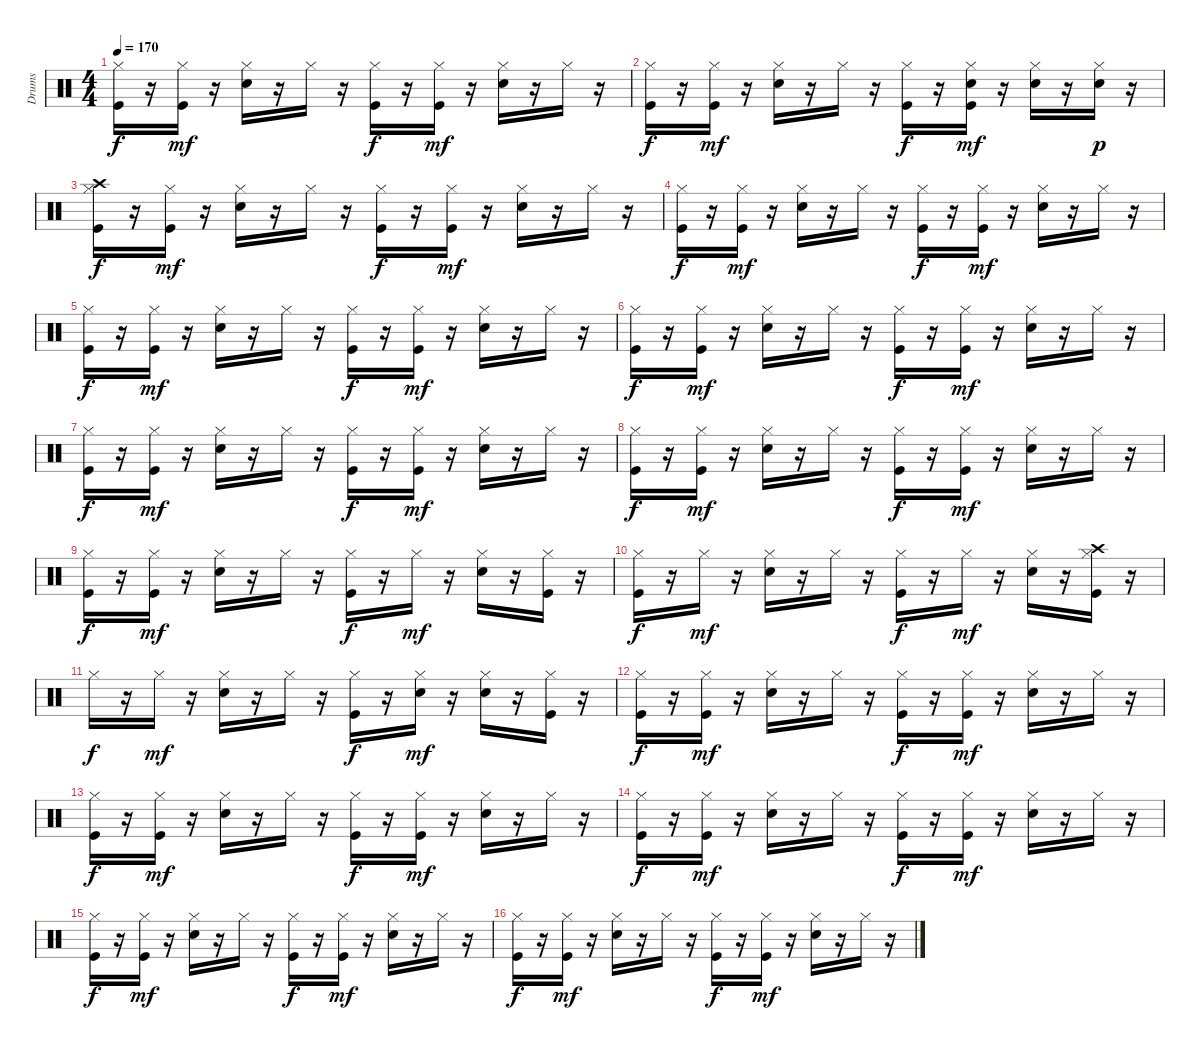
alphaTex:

\track ("Drums" "Drums") {instrument percussion}
\staff {score}
\articulation defaults
\ts (4 4)
\tempo 170
\clef neutral
\ks c
("Hi-Hat (closed)" "Kick (hit)").16{dy f} r.16 ("Hi-Hat (closed)" "Kick (hit)").16{dy mf} r.16 ("Hi-Hat (closed)" "Electric Snare (hit)").16 r.16 "Hi-Hat (closed)".16 r.16 ("Hi-Hat (closed)" "Kick (hit)").16{dy f} r.16 ("Hi-Hat (closed)" "Kick (hit)").16{dy mf} r.16 ("Hi-Hat (closed)" "Electric Snare (hit)").16 r.16 "Hi-Hat (closed)".16 r.16 |
("Hi-Hat (closed)" "Kick (hit)").16{dy f} r.16 ("Hi-Hat (closed)" "Kick (hit)").16{dy mf} r.16 ("Hi-Hat (closed)" "Electric Snare (hit)").16 r.16 "Hi-Hat (closed)".16 r.16 ("Hi-Hat (closed)" "Kick (hit)").16{dy f} r.16 ("Hi-Hat (closed)" "Kick (hit)" "Electric Snare (hit)").16{dy mf} r.16 ("Hi-Hat (closed)" "Electric Snare (hit)").16 r.16 ("Hi-Hat (closed)" "Electric Snare (hit)").16{dy p} r.16 |
("Hi-Hat (closed)" "Crash high (hit)" "Kick (hit)").16{dy f} r.16 ("Hi-Hat (closed)" "Kick (hit)").16{dy mf} r.16 ("Hi-Hat (closed)" "Electric Snare (hit)").16 r.16 "Hi-Hat (closed)".16 r.16 ("Hi-Hat (closed)" "Kick (hit)").16{dy f} r.16 ("Hi-Hat (closed)" "Kick (hit)").16{dy mf} r.16 ("Hi-Hat (closed)" "Electric Snare (hit)").16 r.16 "Hi-Hat (closed)".16 r.16 |
("Hi-Hat (closed)" "Kick (hit)").16{dy f} r.16 ("Hi-Hat (closed)" "Kick (hit)").16{dy mf} r.16 ("Hi-Hat (closed)" "Electric Snare (hit)").16 r.16 "Hi-Hat (closed)".16 r.16 ("Hi-Hat (closed)" "Kick (hit)").16{dy f} r.16 ("Hi-Hat (closed)" "Kick (hit)").16{dy mf} r.16 ("Hi-Hat (closed)" "Electric Snare (hit)").16 r.16 "Hi-Hat (closed)".16 r.16 |
("Hi-Hat (closed)" "Kick (hit)").16{dy f} r.16 ("Hi-Hat (closed)" "Kick (hit)").16{dy mf} r.16 ("Hi-Hat (closed)" "Electric Snare (hit)").16 r.16 "Hi-Hat (closed)".16 r.16 ("Hi-Hat (closed)" "Kick (hit)").16{dy f} r.16 ("Hi-Hat (closed)" "Kick (hit)").16{dy mf} r.16 ("Hi-Hat (closed)" "Electric Snare (hit)").16 r.16 "Hi-Hat (closed)".16 r.16 |
("Hi-Hat (closed)" "Kick (hit)").16{dy f} r.16 ("Hi-Hat (closed)" "Kick (hit)").16{dy mf} r.16 ("Hi-Hat (closed)" "Electric Snare (hit)").16 r.16 "Hi-Hat (closed)".16 r.16 ("Hi-Hat (closed)" "Kick (hit)").16{dy f} r.16 ("Hi-Hat (closed)" "Kick (hit)").16{dy mf} r.16 ("Hi-Hat (closed)" "Electric Snare (hit)").16 r.16 "Hi-Hat (closed)".16 r.16 |
("Hi-Hat (closed)" "Kick (hit)").16{dy f} r.16 ("Hi-Hat (closed)" "Kick (hit)").16{dy mf} r.16 ("Hi-Hat (closed)" "Electric Snare (hit)").16 r.16 "Hi-Hat (closed)".16 r.16 ("Hi-Hat (closed)" "Kick (hit)").16{dy f} r.16 ("Hi-Hat (closed)" "Kick (hit)").16{dy mf} r.16 ("Hi-Hat (closed)" "Electric Snare (hit)").16 r.16 "Hi-Hat (closed)".16 r.16 |
("Hi-Hat (closed)" "Kick (hit)").16{dy f} r.16 ("Hi-Hat (closed)" "Kick (hit)").16{dy mf} r.16 ("Hi-Hat (closed)" "Electric Snare (hit)").16 r.16 "Hi-Hat (closed)".16 r.16 ("Hi-Hat (closed)" "Kick (hit)").16{dy f} r.16 ("Hi-Hat (closed)" "Kick (hit)").16{dy mf} r.16 ("Hi-Hat (closed)" "Electric Snare (hit)").16 r.16 "Hi-Hat (closed)".16 r.16 |
("Hi-Hat (closed)" "Kick (hit)").16{dy f} r.16 ("Hi-Hat (closed)" "Kick (hit)").16{dy mf} r.16 ("Hi-Hat (closed)" "Electric Snare (hit)").16 r.16 "Hi-Hat (closed)".16 r.16 ("Hi-Hat (closed)" "Kick (hit)").16{dy f} r.16 "Hi-Hat (closed)".16{dy mf} r.16 ("Hi-Hat (closed)" "Electric Snare (hit)").16 r.16 ("Hi-Hat (closed)" "Kick (hit)").16 r.16 |
("Hi-Hat (closed)" "Kick (hit)").16{dy f} r.16 "Hi-Hat (closed)".16{dy mf} r.16 ("Hi-Hat (closed)" "Electric Snare (hit)").16 r.16 "Hi-Hat (closed)".16 r.16 ("Hi-Hat (closed)" "Kick (hit)").16{dy f} r.16 "Hi-Hat (closed)".16{dy mf} r.16 ("Hi-Hat (closed)" "Electric Snare (hit)").16 r.16 ("Hi-Hat (closed)" "Crash high (hit)" "Kick (hit)").16 r.16 |
"Hi-Hat (closed)".16{dy f} r.16 "Hi-Hat (closed)".16{dy mf} r.16 ("Hi-Hat (closed)" "Electric Snare (hit)").16 r.16 "Hi-Hat (closed)".16 r.16 ("Hi-Hat (closed)" "Kick (hit)").16{dy f} r.16 ("Hi-Hat (closed)" "Electric Snare (hit)").16{dy mf} r.16 ("Hi-Hat (closed)" "Electric Snare (hit)").16 r.16 ("Hi-Hat (closed)" "Kick (hit)").16 r.16 |
("Hi-Hat (closed)" "Kick (hit)").16{dy f} r.16 ("Hi-Hat (closed)" "Kick (hit)").16{dy mf} r.16 ("Hi-Hat (closed)" "Electric Snare (hit)").16 r.16 "Hi-Hat (closed)".16 r.16 ("Hi-Hat (closed)" "Kick (hit)").16{dy f} r.16 ("Hi-Hat (closed)" "Kick (hit)").16{dy mf} r.16 ("Hi-Hat (closed)" "Electric Snare (hit)").16 r.16 "Hi-Hat (closed)".16 r.16 |
("Hi-Hat (closed)" "Kick (hit)").16{dy f} r.16 ("Hi-Hat (closed)" "Kick (hit)").16{dy mf} r.16 ("Hi-Hat (closed)" "Electric Snare (hit)").16 r.16 "Hi-Hat (closed)".16 r.16 ("Hi-Hat (closed)" "Kick (hit)").16{dy f} r.16 ("Hi-Hat (closed)" "Kick (hit)").16{dy mf} r.16 ("Hi-Hat (closed)" "Electric Snare (hit)").16 r.16 "Hi-Hat (closed)".16 r.16 |
("Hi-Hat (closed)" "Kick (hit)").16{dy f} r.16 ("Hi-Hat (closed)" "Kick (hit)").16{dy mf} r.16 ("Hi-Hat (closed)" "Electric Snare (hit)").16 r.16 "Hi-Hat (closed)".16 r.16 ("Hi-Hat (closed)" "Kick (hit)").16{dy f} r.16 ("Hi-Hat (closed)" "Kick (hit)").16{dy mf} r.16 ("Hi-Hat (closed)" "Electric Snare (hit)").16 r.16 "Hi-Hat (closed)".16 r.16 |
("Hi-Hat (closed)" "Kick (hit)").16{dy f} r.16 ("Hi-Hat (closed)" "Kick (hit)").16{dy mf} r.16 ("Hi-Hat (closed)" "Electric Snare (hit)").16 r.16 "Hi-Hat (closed)".16 r.16 ("Hi-Hat (closed)" "Kick (hit)").16{dy f} r.16 ("Hi-Hat (closed)" "Kick (hit)").16{dy mf} r.16 ("Hi-Hat (closed)" "Electric Snare (hit)").16 r.16 "Hi-Hat (closed)".16 r.16 |
("Hi-Hat (closed)" "Kick (hit)").16{dy f} r.16 ("Hi-Hat (closed)" "Kick (hit)").16{dy mf} r.16 ("Hi-Hat (closed)" "Electric Snare (hit)").16 r.16 "Hi-Hat (closed)".16 r.16 ("Hi-Hat (closed)" "Kick (hit)").16{dy f} r.16 ("Hi-Hat (closed)" "Kick (hit)").16{dy mf} r.16 ("Hi-Hat (closed)" "Electric Snare (hit)").16 r.16 "Hi-Hat (closed)".16 r.16
